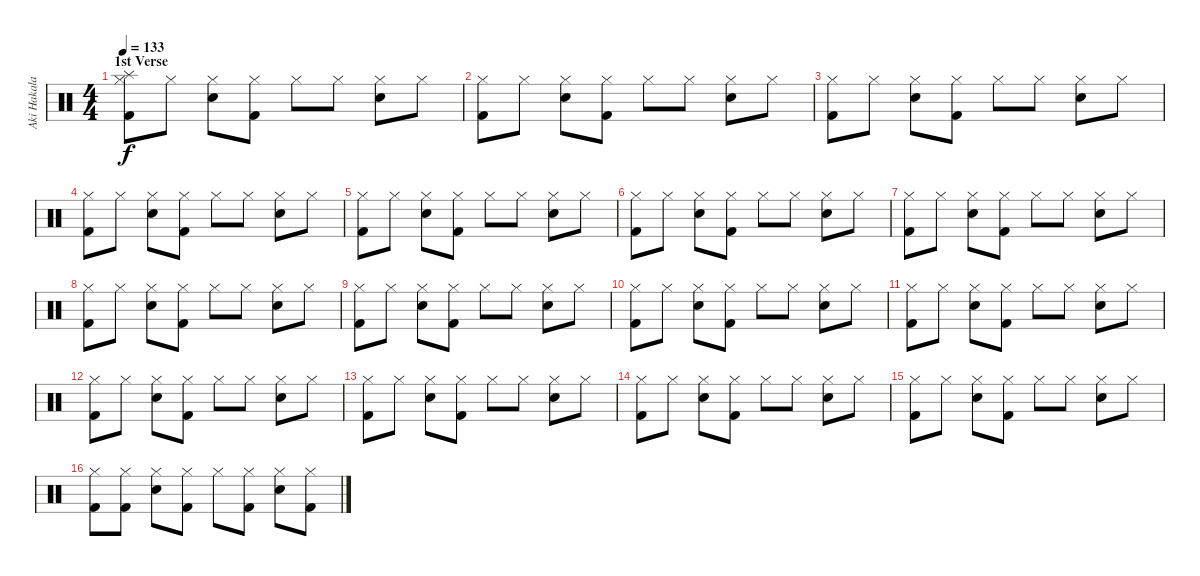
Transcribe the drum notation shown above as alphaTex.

\track ("Aki Hakala - Drums" "Aki Hakala") {instrument percussion}
\staff {score}
\articulation defaults
\ts (4 4)
\section ("" "1st Verse")
\tempo 133
\clef neutral
\ks c
("Splash (hit)" "Hi-Hat (closed)" "Kick (hit) 2").8{dy f} "Hi-Hat (closed)".8 ("Snare (hit) 2" "Hi-Hat (closed)").8 ("Hi-Hat (closed)" "Kick (hit) 2").8 "Hi-Hat (closed)".8 "Hi-Hat (closed)".8 ("Snare (hit) 2" "Hi-Hat (closed)").8 "Hi-Hat (closed)".8 |
("Hi-Hat (closed)" "Kick (hit) 2").8 "Hi-Hat (closed)".8 ("Snare (hit) 2" "Hi-Hat (closed)").8 ("Hi-Hat (closed)" "Kick (hit) 2").8 "Hi-Hat (closed)".8 "Hi-Hat (closed)".8 ("Snare (hit) 2" "Hi-Hat (closed)").8 "Hi-Hat (closed)".8 |
("Hi-Hat (closed)" "Kick (hit) 2").8 "Hi-Hat (closed)".8 ("Snare (hit) 2" "Hi-Hat (closed)").8 ("Hi-Hat (closed)" "Kick (hit) 2").8 "Hi-Hat (closed)".8 "Hi-Hat (closed)".8 ("Snare (hit) 2" "Hi-Hat (closed)").8 "Hi-Hat (closed)".8 |
("Hi-Hat (closed)" "Kick (hit) 2").8 "Hi-Hat (closed)".8 ("Snare (hit) 2" "Hi-Hat (closed)").8 ("Hi-Hat (closed)" "Kick (hit) 2").8 "Hi-Hat (closed)".8 "Hi-Hat (closed)".8 ("Snare (hit) 2" "Hi-Hat (closed)").8 "Hi-Hat (closed)".8 |
("Hi-Hat (closed)" "Kick (hit) 2").8 "Hi-Hat (closed)".8 ("Snare (hit) 2" "Hi-Hat (closed)").8 ("Hi-Hat (closed)" "Kick (hit) 2").8 "Hi-Hat (closed)".8 "Hi-Hat (closed)".8 ("Snare (hit) 2" "Hi-Hat (closed)").8 "Hi-Hat (closed)".8 |
("Hi-Hat (closed)" "Kick (hit) 2").8 "Hi-Hat (closed)".8 ("Snare (hit) 2" "Hi-Hat (closed)").8 ("Hi-Hat (closed)" "Kick (hit) 2").8 "Hi-Hat (closed)".8 "Hi-Hat (closed)".8 ("Snare (hit) 2" "Hi-Hat (closed)").8 "Hi-Hat (closed)".8 |
("Hi-Hat (closed)" "Kick (hit) 2").8 "Hi-Hat (closed)".8 ("Snare (hit) 2" "Hi-Hat (closed)").8 ("Hi-Hat (closed)" "Kick (hit) 2").8 "Hi-Hat (closed)".8 "Hi-Hat (closed)".8 ("Snare (hit) 2" "Hi-Hat (closed)").8 "Hi-Hat (closed)".8 |
("Hi-Hat (closed)" "Kick (hit) 2").8 "Hi-Hat (closed)".8 ("Snare (hit) 2" "Hi-Hat (closed)").8 ("Hi-Hat (closed)" "Kick (hit) 2").8 "Hi-Hat (closed)".8 "Hi-Hat (closed)".8 ("Snare (hit) 2" "Hi-Hat (closed)").8 "Hi-Hat (closed)".8 |
("Hi-Hat (closed)" "Kick (hit) 2").8 "Hi-Hat (closed)".8 ("Snare (hit) 2" "Hi-Hat (closed)").8 ("Hi-Hat (closed)" "Kick (hit) 2").8 "Hi-Hat (closed)".8 "Hi-Hat (closed)".8 ("Snare (hit) 2" "Hi-Hat (closed)").8 "Hi-Hat (closed)".8 |
("Hi-Hat (closed)" "Kick (hit) 2").8 "Hi-Hat (closed)".8 ("Snare (hit) 2" "Hi-Hat (closed)").8 ("Hi-Hat (closed)" "Kick (hit) 2").8 "Hi-Hat (closed)".8 "Hi-Hat (closed)".8 ("Snare (hit) 2" "Hi-Hat (closed)").8 "Hi-Hat (closed)".8 |
("Hi-Hat (closed)" "Kick (hit) 2").8 "Hi-Hat (closed)".8 ("Snare (hit) 2" "Hi-Hat (closed)").8 ("Hi-Hat (closed)" "Kick (hit) 2").8 "Hi-Hat (closed)".8 "Hi-Hat (closed)".8 ("Snare (hit) 2" "Hi-Hat (closed)").8 "Hi-Hat (closed)".8 |
("Hi-Hat (closed)" "Kick (hit) 2").8 "Hi-Hat (closed)".8 ("Snare (hit) 2" "Hi-Hat (closed)").8 ("Hi-Hat (closed)" "Kick (hit) 2").8 "Hi-Hat (closed)".8 "Hi-Hat (closed)".8 ("Snare (hit) 2" "Hi-Hat (closed)").8 "Hi-Hat (closed)".8 |
("Hi-Hat (closed)" "Kick (hit) 2").8 "Hi-Hat (closed)".8 ("Snare (hit) 2" "Hi-Hat (closed)").8 ("Hi-Hat (closed)" "Kick (hit) 2").8 "Hi-Hat (closed)".8 "Hi-Hat (closed)".8 ("Snare (hit) 2" "Hi-Hat (closed)").8 "Hi-Hat (closed)".8 |
("Hi-Hat (closed)" "Kick (hit) 2").8 "Hi-Hat (closed)".8 ("Snare (hit) 2" "Hi-Hat (closed)").8 ("Hi-Hat (closed)" "Kick (hit) 2").8 "Hi-Hat (closed)".8 "Hi-Hat (closed)".8 ("Snare (hit) 2" "Hi-Hat (closed)").8 "Hi-Hat (closed)".8 |
("Hi-Hat (closed)" "Kick (hit) 2").8 "Hi-Hat (closed)".8 ("Snare (hit) 2" "Hi-Hat (closed)").8 ("Hi-Hat (closed)" "Kick (hit) 2").8 "Hi-Hat (closed)".8 "Hi-Hat (closed)".8 ("Snare (hit) 2" "Hi-Hat (closed)").8 "Hi-Hat (closed)".8 |
("Hi-Hat (closed)" "Kick (hit) 2").8 ("Hi-Hat (closed)" "Kick (hit) 2").8 ("Snare (hit) 2" "Hi-Hat (closed)").8 ("Hi-Hat (closed)" "Kick (hit) 2").8 "Hi-Hat (closed)".8 ("Hi-Hat (closed)" "Kick (hit) 2").8 ("Snare (hit) 2" "Hi-Hat (closed)").8 ("Hi-Hat (closed)" "Kick (hit) 2").8
